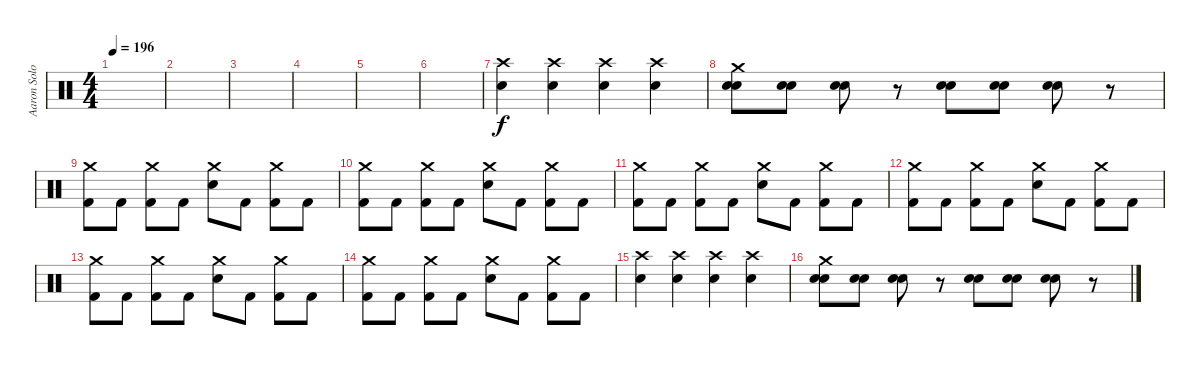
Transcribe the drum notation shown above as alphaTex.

\track ("Aaron Solowoniuk" "Aaron Solo") {instrument percussion}
\staff {score}
\articulation defaults
\ts (4 4)
\tempo 196
\clef neutral
\ks c
|
|
|
|
|
|
("Crash high (hit)" "Electric Snare (hit)").4 ("Crash high (hit)" "Electric Snare (hit)").4 ("Crash high (hit)" "Electric Snare (hit)").4 ("Crash high (hit)" "Electric Snare (hit)").4 |
("Crash medium (hit)" "Electric Snare (hit)" "Electric Snare (hit)").8 ("Electric Snare (hit)" "Electric Snare (hit)").8 ("Electric Snare (hit)" "Electric Snare (hit)").8 r.8 ("Electric Snare (hit)" "Electric Snare (hit)").8 ("Electric Snare (hit)" "Electric Snare (hit)").8 ("Electric Snare (hit)" "Electric Snare (hit)").8 r.8 |
("Crash medium (hit)" "Kick (hit) 2").8 "Kick (hit) 2".8 ("Crash medium (hit)" "Kick (hit) 2").8 "Kick (hit) 2".8 ("Crash medium (hit)" "Electric Snare (hit)").8 "Kick (hit) 2".8 ("Crash medium (hit)" "Kick (hit) 2").8 "Kick (hit) 2".8 |
("Crash medium (hit)" "Kick (hit) 2").8 "Kick (hit) 2".8 ("Crash medium (hit)" "Kick (hit) 2").8 "Kick (hit) 2".8 ("Crash medium (hit)" "Electric Snare (hit)").8 "Kick (hit) 2".8 ("Crash medium (hit)" "Kick (hit) 2").8 "Kick (hit) 2".8 |
("Crash medium (hit)" "Kick (hit) 2").8 "Kick (hit) 2".8 ("Crash medium (hit)" "Kick (hit) 2").8 "Kick (hit) 2".8 ("Crash medium (hit)" "Electric Snare (hit)").8 "Kick (hit) 2".8 ("Crash medium (hit)" "Kick (hit) 2").8 "Kick (hit) 2".8 |
("Crash medium (hit)" "Kick (hit) 2").8 "Kick (hit) 2".8 ("Crash medium (hit)" "Kick (hit) 2").8 "Kick (hit) 2".8 ("Crash medium (hit)" "Electric Snare (hit)").8 "Kick (hit) 2".8 ("Crash medium (hit)" "Kick (hit) 2").8 "Kick (hit) 2".8 |
("Crash medium (hit)" "Kick (hit) 2").8 "Kick (hit) 2".8 ("Crash medium (hit)" "Kick (hit) 2").8 "Kick (hit) 2".8 ("Crash medium (hit)" "Electric Snare (hit)").8 "Kick (hit) 2".8 ("Crash medium (hit)" "Kick (hit) 2").8 "Kick (hit) 2".8 |
("Crash medium (hit)" "Kick (hit) 2").8 "Kick (hit) 2".8 ("Crash medium (hit)" "Kick (hit) 2").8 "Kick (hit) 2".8 ("Crash medium (hit)" "Electric Snare (hit)").8 "Kick (hit) 2".8 ("Crash medium (hit)" "Kick (hit) 2").8 "Kick (hit) 2".8 |
("Crash high (hit)" "Electric Snare (hit)").4 ("Crash high (hit)" "Electric Snare (hit)").4 ("Crash high (hit)" "Electric Snare (hit)").4 ("Crash high (hit)" "Electric Snare (hit)").4 |
("Crash medium (hit)" "Electric Snare (hit)" "Electric Snare (hit)").8 ("Electric Snare (hit)" "Electric Snare (hit)").8 ("Electric Snare (hit)" "Electric Snare (hit)").8 r.8 ("Electric Snare (hit)" "Electric Snare (hit)").8 ("Electric Snare (hit)" "Electric Snare (hit)").8 ("Electric Snare (hit)" "Electric Snare (hit)").8 r.8
